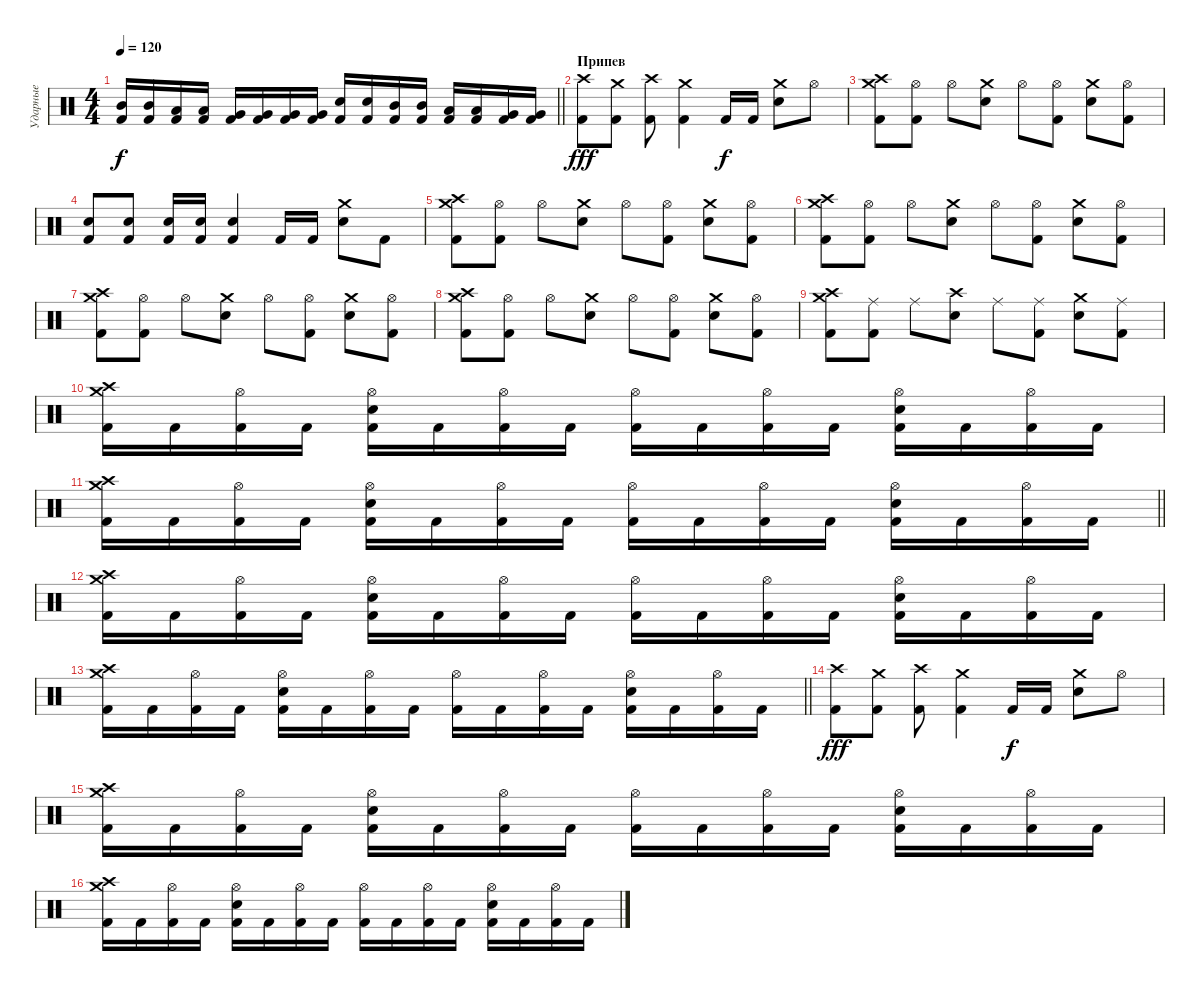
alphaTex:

\track ("Ударные" "Ударные") {instrument percussion}
\staff
\articulation defaults
\ts (4 4)
\tempo 120
\clef neutral
\barLineRight lightlight
\ks c
("Mid Tom (hit)" "Kick (hit) 2").16{dy f} ("Mid Tom (hit)" "Kick (hit) 2").16 ("Low Tom (hit)" "Kick (hit) 2").16 ("Low Tom (hit)" "Kick (hit) 2").16 ("Very Low Tom (hit)" "Kick (hit) 2").16 ("Very Low Tom (hit)" "Kick (hit) 2").16 ("Very Low Tom (hit)" "Kick (hit) 2").16 ("Very Low Tom (hit)" "Kick (hit) 2").16 ("Electric Snare (hit)" "Kick (hit) 2").16 ("Electric Snare (hit)" "Kick (hit) 2").16 ("Mid Tom (hit)" "Kick (hit) 2").16 ("Mid Tom (hit)" "Kick (hit) 2").16 ("Low Tom (hit)" "Kick (hit) 2").16 ("Low Tom (hit)" "Kick (hit) 2").16 ("Very Low Tom (hit)" "Kick (hit) 2").16 ("Very Low Tom (hit)" "Kick (hit) 2").16 |
\section ("" "Припев")
("Crash high (hit)" "Kick (hit) 2").8{dy fff} ("Crash medium (hit)" "Kick (hit) 2").8 ("Crash high (hit)" "Kick (hit) 2").8 ("Crash medium (hit)" "Kick (hit) 2").4 "Kick (hit) 2".16{dy f} "Kick (hit) 2".16 ("Crash medium (hit)" "Electric Snare (hit)").8 "Hi-Hat (open)".8 |
("Crash high (hit)" "Crash medium (hit)" "Kick (hit) 2").8 ("Hi-Hat (open)" "Kick (hit) 2").8 "Hi-Hat (open)".8 ("Crash medium (hit)" "Electric Snare (hit)").8 "Hi-Hat (open)".8 ("Hi-Hat (open)" "Kick (hit) 2").8 ("Crash medium (hit)" "Electric Snare (hit)").8 ("Hi-Hat (open)" "Kick (hit) 2").8 |
("Electric Snare (hit)" "Kick (hit) 2").8 ("Electric Snare (hit)" "Kick (hit) 2").8 ("Electric Snare (hit)" "Kick (hit) 2").16 ("Electric Snare (hit)" "Kick (hit) 2").16 ("Electric Snare (hit)" "Kick (hit) 2").4 "Kick (hit) 2".16 "Kick (hit) 2".16 ("Crash medium (hit)" "Electric Snare (hit)").8 "Kick (hit) 2".8 |
("Crash high (hit)" "Crash medium (hit)" "Kick (hit) 2").8 ("Hi-Hat (open)" "Kick (hit) 2").8 "Hi-Hat (open)".8 ("Crash medium (hit)" "Electric Snare (hit)").8 "Hi-Hat (open)".8 ("Hi-Hat (open)" "Kick (hit) 2").8 ("Crash medium (hit)" "Electric Snare (hit)").8 ("Hi-Hat (open)" "Kick (hit) 2").8 |
("Crash high (hit)" "Crash medium (hit)" "Kick (hit) 2").8 ("Hi-Hat (open)" "Kick (hit) 2").8 "Hi-Hat (open)".8 ("Crash medium (hit)" "Electric Snare (hit)").8 "Hi-Hat (open)".8 ("Hi-Hat (open)" "Kick (hit) 2").8 ("Crash medium (hit)" "Electric Snare (hit)").8 ("Hi-Hat (open)" "Kick (hit) 2").8 |
("Crash high (hit)" "Crash medium (hit)" "Kick (hit) 2").8 ("Hi-Hat (open)" "Kick (hit) 2").8 "Hi-Hat (open)".8 ("Crash medium (hit)" "Electric Snare (hit)").8 "Hi-Hat (open)".8 ("Hi-Hat (open)" "Kick (hit) 2").8 ("Crash medium (hit)" "Electric Snare (hit)").8 ("Hi-Hat (open)" "Kick (hit) 2").8 |
("Crash high (hit)" "Crash medium (hit)" "Kick (hit) 2").8 ("Hi-Hat (open)" "Kick (hit) 2").8 "Hi-Hat (open)".8 ("Crash medium (hit)" "Electric Snare (hit)").8 "Hi-Hat (open)".8 ("Hi-Hat (open)" "Kick (hit) 2").8 ("Crash medium (hit)" "Electric Snare (hit)").8 ("Hi-Hat (open)" "Kick (hit) 2").8 |
("Crash high (hit)" "Crash medium (hit)" "Kick (hit) 2").8 ("Ride (middle)" "Kick (hit) 2").8 "Ride (middle)".8 ("Crash high (hit)" "Electric Snare (hit)").8 "Ride (middle)".8 ("Ride (middle)" "Kick (hit) 2").8 ("Crash medium (hit)" "Electric Snare (hit)").8 ("Ride (middle)" "Kick (hit) 2").8 |
("Crash high (hit)" "Crash medium (hit)" "Kick (hit) 2").16 "Kick (hit) 2".16 ("Hi-Hat (open)" "Kick (hit) 2").16 "Kick (hit) 2".16 ("Hi-Hat (open)" "Electric Snare (hit)" "Kick (hit) 2").16 "Kick (hit) 2".16 ("Hi-Hat (open)" "Kick (hit) 2").16 "Kick (hit) 2".16 ("Hi-Hat (open)" "Kick (hit) 2").16 "Kick (hit) 2".16 ("Hi-Hat (open)" "Kick (hit) 2").16 "Kick (hit) 2".16 ("Hi-Hat (open)" "Electric Snare (hit)" "Kick (hit) 2").16 "Kick (hit) 2".16 ("Hi-Hat (open)" "Kick (hit) 2").16 "Kick (hit) 2".16 |
\barLineRight lightlight
("Crash high (hit)" "Crash medium (hit)" "Kick (hit) 2").16 "Kick (hit) 2".16 ("Hi-Hat (open)" "Kick (hit) 2").16 "Kick (hit) 2".16 ("Hi-Hat (open)" "Electric Snare (hit)" "Kick (hit) 2").16 "Kick (hit) 2".16 ("Hi-Hat (open)" "Kick (hit) 2").16 "Kick (hit) 2".16 ("Hi-Hat (open)" "Kick (hit) 2").16 "Kick (hit) 2".16 ("Hi-Hat (open)" "Kick (hit) 2").16 "Kick (hit) 2".16 ("Hi-Hat (open)" "Electric Snare (hit)" "Kick (hit) 2").16 "Kick (hit) 2".16 ("Hi-Hat (open)" "Kick (hit) 2").16 "Kick (hit) 2".16 |
("Crash high (hit)" "Crash medium (hit)" "Kick (hit) 2").16 "Kick (hit) 2".16 ("Hi-Hat (open)" "Kick (hit) 2").16 "Kick (hit) 2".16 ("Hi-Hat (open)" "Electric Snare (hit)" "Kick (hit) 2").16 "Kick (hit) 2".16 ("Hi-Hat (open)" "Kick (hit) 2").16 "Kick (hit) 2".16 ("Hi-Hat (open)" "Kick (hit) 2").16 "Kick (hit) 2".16 ("Hi-Hat (open)" "Kick (hit) 2").16 "Kick (hit) 2".16 ("Hi-Hat (open)" "Electric Snare (hit)" "Kick (hit) 2").16 "Kick (hit) 2".16 ("Hi-Hat (open)" "Kick (hit) 2").16 "Kick (hit) 2".16 |
\barLineRight lightlight
("Crash high (hit)" "Crash medium (hit)" "Kick (hit) 2").16 "Kick (hit) 2".16 ("Hi-Hat (open)" "Kick (hit) 2").16 "Kick (hit) 2".16 ("Hi-Hat (open)" "Electric Snare (hit)" "Kick (hit) 2").16 "Kick (hit) 2".16 ("Hi-Hat (open)" "Kick (hit) 2").16 "Kick (hit) 2".16 ("Hi-Hat (open)" "Kick (hit) 2").16 "Kick (hit) 2".16 ("Hi-Hat (open)" "Kick (hit) 2").16 "Kick (hit) 2".16 ("Hi-Hat (open)" "Electric Snare (hit)" "Kick (hit) 2").16 "Kick (hit) 2".16 ("Hi-Hat (open)" "Kick (hit) 2").16 "Kick (hit) 2".16 |
("Crash high (hit)" "Kick (hit) 2").8{dy fff} ("Crash medium (hit)" "Kick (hit) 2").8 ("Crash high (hit)" "Kick (hit) 2").8 ("Crash medium (hit)" "Kick (hit) 2").4 "Kick (hit) 2".16{dy f} "Kick (hit) 2".16 ("Crash medium (hit)" "Electric Snare (hit)").8 "Hi-Hat (open)".8 |
("Crash high (hit)" "Crash medium (hit)" "Kick (hit) 2").16 "Kick (hit) 2".16 ("Hi-Hat (open)" "Kick (hit) 2").16 "Kick (hit) 2".16 ("Hi-Hat (open)" "Electric Snare (hit)" "Kick (hit) 2").16 "Kick (hit) 2".16 ("Hi-Hat (open)" "Kick (hit) 2").16 "Kick (hit) 2".16 ("Hi-Hat (open)" "Kick (hit) 2").16 "Kick (hit) 2".16 ("Hi-Hat (open)" "Kick (hit) 2").16 "Kick (hit) 2".16 ("Hi-Hat (open)" "Electric Snare (hit)" "Kick (hit) 2").16 "Kick (hit) 2".16 ("Hi-Hat (open)" "Kick (hit) 2").16 "Kick (hit) 2".16 |
("Crash high (hit)" "Crash medium (hit)" "Kick (hit) 2").16 "Kick (hit) 2".16 ("Hi-Hat (open)" "Kick (hit) 2").16 "Kick (hit) 2".16 ("Hi-Hat (open)" "Electric Snare (hit)" "Kick (hit) 2").16 "Kick (hit) 2".16 ("Hi-Hat (open)" "Kick (hit) 2").16 "Kick (hit) 2".16 ("Hi-Hat (open)" "Kick (hit) 2").16 "Kick (hit) 2".16 ("Hi-Hat (open)" "Kick (hit) 2").16 "Kick (hit) 2".16 ("Hi-Hat (open)" "Electric Snare (hit)" "Kick (hit) 2").16 "Kick (hit) 2".16 ("Hi-Hat (open)" "Kick (hit) 2").16 "Kick (hit) 2".16
